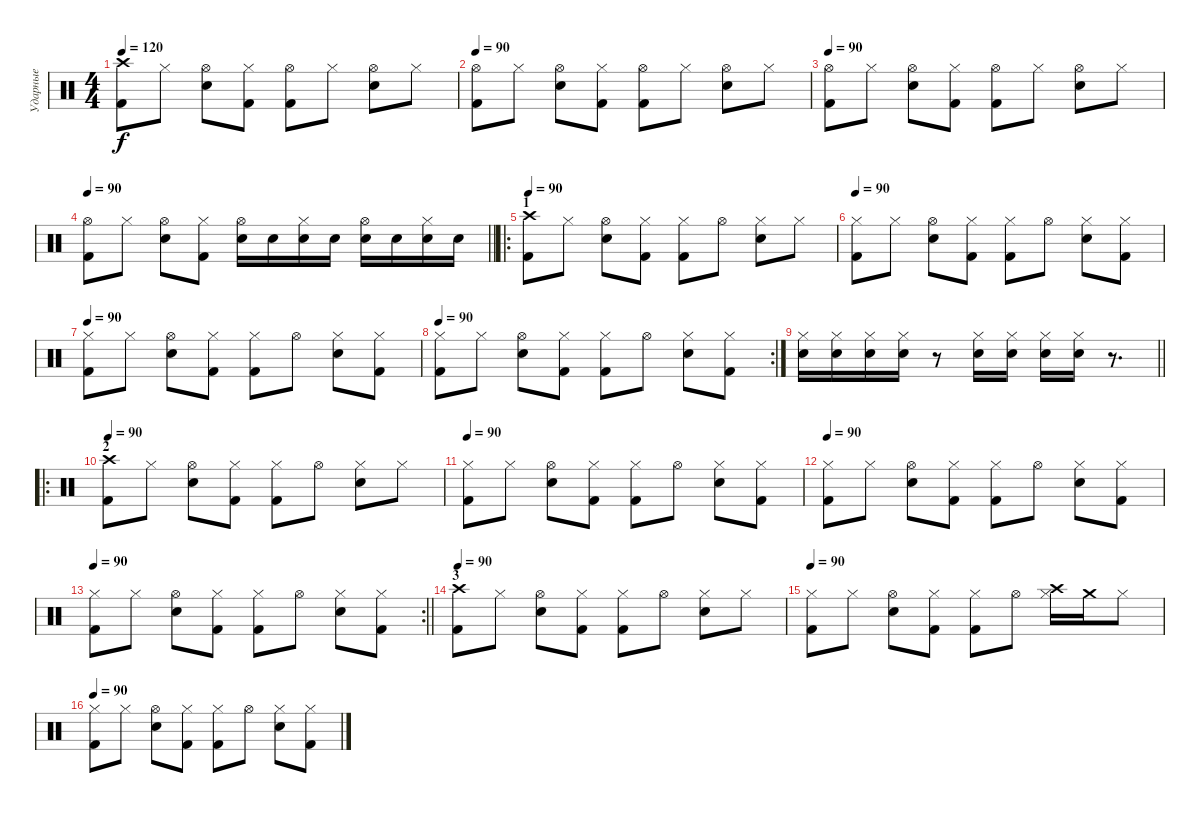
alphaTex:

\track ("Ударные" "Ударные") {solo instrument percussion}
\staff {score}
\articulation defaults
\ts (4 4)
\tempo 120
\tempo 90
\tempo 120
\clef neutral
\ks c
("Crash high (hit)" "Kick (hit) 2").8{dy f} "Hi-Hat (closed)".8 ("Hi-Hat (open)" "Snare (hit) 2").8 ("Hi-Hat (closed)" "Kick (hit) 2").8 ("Hi-Hat (open)" "Kick (hit) 2").8 "Hi-Hat (closed)".8 ("Hi-Hat (open)" "Snare (hit) 2").8 "Hi-Hat (closed)".8 |
\tempo 90
("Hi-Hat (open)" "Kick (hit) 2").8 "Hi-Hat (closed)".8 ("Hi-Hat (open)" "Snare (hit) 2").8 ("Hi-Hat (closed)" "Kick (hit) 2").8 ("Hi-Hat (open)" "Kick (hit) 2").8 "Hi-Hat (closed)".8 ("Hi-Hat (open)" "Snare (hit) 2").8 "Hi-Hat (closed)".8 |
\tempo 90
("Hi-Hat (open)" "Kick (hit) 2").8 "Hi-Hat (closed)".8 ("Hi-Hat (open)" "Snare (hit) 2").8 ("Hi-Hat (closed)" "Kick (hit) 2").8 ("Hi-Hat (open)" "Kick (hit) 2").8 "Hi-Hat (closed)".8 ("Hi-Hat (open)" "Snare (hit) 2").8 "Hi-Hat (closed)".8 |
\tempo 90
\barLineRight lightlight
("Hi-Hat (open)" "Kick (hit) 2").8 "Hi-Hat (closed)".8 ("Hi-Hat (open)" "Snare (hit) 2").8 ("Hi-Hat (closed)" "Kick (hit) 2").8 ("Hi-Hat (open)" "Snare (hit) 2").16 "Snare (hit) 2".16 ("Hi-Hat (closed)" "Snare (hit) 2").16 "Snare (hit) 2".16 ("Hi-Hat (open)" "Snare (hit) 2").16 "Snare (hit) 2".16 ("Hi-Hat (closed)" "Snare (hit) 2").16 "Snare (hit) 2".16 |
\ro
\section ("" "1")
\tempo 90
("Crash high (hit)" "Kick (hit) 2").8 "Hi-Hat (closed)".8 ("Hi-Hat (open)" "Snare (hit) 2").8 ("Hi-Hat (closed)" "Kick (hit) 2").8 ("Hi-Hat (closed)" "Kick (hit) 2").8 "Hi-Hat (open)".8 ("Hi-Hat (closed)" "Snare (hit) 2").8 "Hi-Hat (closed)".8 |
\tempo 90
("Hi-Hat (closed)" "Kick (hit) 2").8 "Hi-Hat (closed)".8 ("Hi-Hat (open)" "Snare (hit) 2").8 ("Hi-Hat (closed)" "Kick (hit) 2").8 ("Hi-Hat (closed)" "Kick (hit) 2").8 "Hi-Hat (open)".8 ("Hi-Hat (closed)" "Snare (hit) 2").8 ("Hi-Hat (closed)" "Kick (hit) 2").8 |
\tempo 90
("Hi-Hat (closed)" "Kick (hit) 2").8 "Hi-Hat (closed)".8 ("Hi-Hat (open)" "Snare (hit) 2").8 ("Hi-Hat (closed)" "Kick (hit) 2").8 ("Hi-Hat (closed)" "Kick (hit) 2").8 "Hi-Hat (open)".8 ("Hi-Hat (closed)" "Snare (hit) 2").8 ("Hi-Hat (closed)" "Kick (hit) 2").8 |
\rc 2
\tempo 90
("Hi-Hat (closed)" "Kick (hit) 2").8 "Hi-Hat (closed)".8 ("Hi-Hat (open)" "Snare (hit) 2").8 ("Hi-Hat (closed)" "Kick (hit) 2").8 ("Hi-Hat (closed)" "Kick (hit) 2").8 "Hi-Hat (open)".8 ("Hi-Hat (closed)" "Snare (hit) 2").8 ("Hi-Hat (closed)" "Kick (hit) 2").8 |
\barLineRight lightlight
("Snare (hit) 2" "Hi-Hat (closed)").16 ("Snare (hit) 2" "Hi-Hat (closed)").16 ("Snare (hit) 2" "Hi-Hat (closed)").16 ("Snare (hit) 2" "Hi-Hat (closed)").16 r.8 ("Snare (hit) 2" "Hi-Hat (closed)").16 ("Snare (hit) 2" "Hi-Hat (closed)").16 ("Snare (hit) 2" "Hi-Hat (closed)").16 ("Snare (hit) 2" "Hi-Hat (closed)").16 r.8{d} |
\ro
\section ("" "2")
\tempo 90
("Crash high (hit)" "Kick (hit) 2").8 "Hi-Hat (closed)".8 ("Hi-Hat (open)" "Snare (hit) 2").8 ("Hi-Hat (closed)" "Kick (hit) 2").8 ("Hi-Hat (closed)" "Kick (hit) 2").8 "Hi-Hat (open)".8 ("Hi-Hat (closed)" "Snare (hit) 2").8 "Hi-Hat (closed)".8 |
\tempo 90
("Hi-Hat (closed)" "Kick (hit) 2").8 "Hi-Hat (closed)".8 ("Hi-Hat (open)" "Snare (hit) 2").8 ("Hi-Hat (closed)" "Kick (hit) 2").8 ("Hi-Hat (closed)" "Kick (hit) 2").8 "Hi-Hat (open)".8 ("Hi-Hat (closed)" "Snare (hit) 2").8 ("Hi-Hat (closed)" "Kick (hit) 2").8 |
\tempo 90
("Hi-Hat (closed)" "Kick (hit) 2").8 "Hi-Hat (closed)".8 ("Hi-Hat (open)" "Snare (hit) 2").8 ("Hi-Hat (closed)" "Kick (hit) 2").8 ("Hi-Hat (closed)" "Kick (hit) 2").8 "Hi-Hat (open)".8 ("Hi-Hat (closed)" "Snare (hit) 2").8 ("Hi-Hat (closed)" "Kick (hit) 2").8 |
\rc 2
\tempo 90
\barLineRight lightlight
("Hi-Hat (closed)" "Kick (hit) 2").8 "Hi-Hat (closed)".8 ("Hi-Hat (open)" "Snare (hit) 2").8 ("Hi-Hat (closed)" "Kick (hit) 2").8 ("Hi-Hat (closed)" "Kick (hit) 2").8 "Hi-Hat (open)".8 ("Hi-Hat (closed)" "Snare (hit) 2").8 ("Hi-Hat (closed)" "Kick (hit) 2").8 |
\section ("" "3")
\tempo 90
("Crash high (hit)" "Kick (hit) 2").8 "Hi-Hat (closed)".8 ("Hi-Hat (open)" "Snare (hit) 2").8 ("Hi-Hat (closed)" "Kick (hit) 2").8 ("Hi-Hat (closed)" "Kick (hit) 2").8 "Hi-Hat (open)".8 ("Hi-Hat (closed)" "Snare (hit) 2").8 "Hi-Hat (closed)".8 |
\tempo 90
("Hi-Hat (closed)" "Kick (hit) 2").8 "Hi-Hat (closed)".8 ("Hi-Hat (open)" "Snare (hit) 2").8 ("Hi-Hat (closed)" "Kick (hit) 2").8 ("Hi-Hat (closed)" "Kick (hit) 2").8 "Hi-Hat (open)".8 ("Hi-Hat (closed)" "Crash high (hit)").16 "Crash medium (hit)".16 "Hi-Hat (closed)".8 |
\tempo 90
("Hi-Hat (closed)" "Kick (hit) 2").8 "Hi-Hat (closed)".8 ("Hi-Hat (open)" "Snare (hit) 2").8 ("Hi-Hat (closed)" "Kick (hit) 2").8 ("Hi-Hat (closed)" "Kick (hit) 2").8 "Hi-Hat (open)".8 ("Hi-Hat (closed)" "Snare (hit) 2").8 ("Hi-Hat (closed)" "Kick (hit) 2").8
